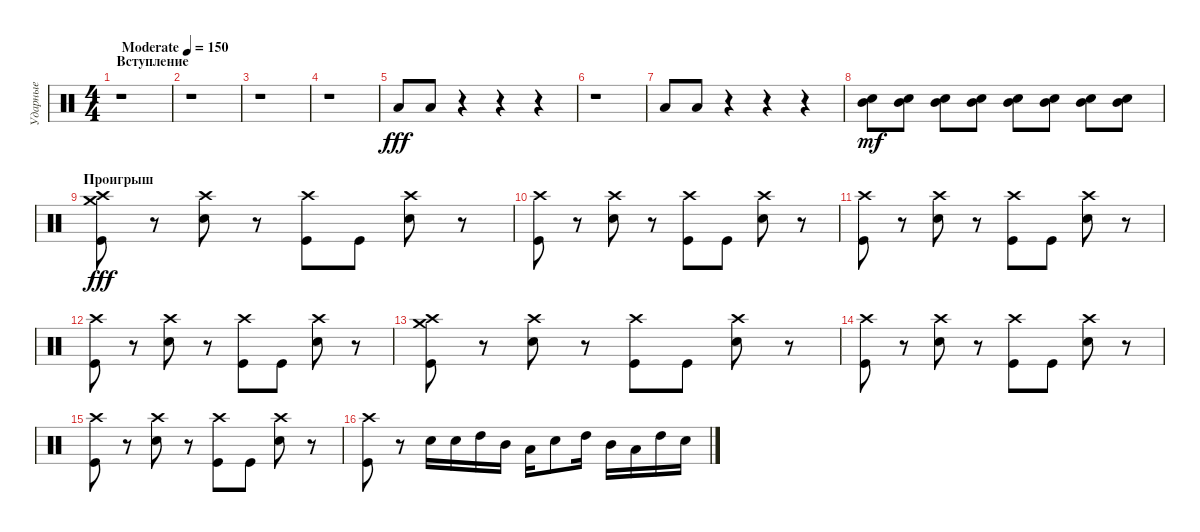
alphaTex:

\track ("Ударные" "Ударные") {instrument percussion}
\staff {score}
\articulation defaults
\ts (4 4)
\section ("" "Вступление")
\tempo (150 "Moderate")
\clef neutral
\ks c
r.1{dy fff} |
r.1 |
r.1 |
r.1 |
"Low Tom (hit)".8 "Low Tom (hit)".8 r.4 r.4 r.4 |
r.1 |
"Low Tom (hit)".8 "Low Tom (hit)".8 r.4 r.4 r.4 |
("Electric Snare (hit)" "Mid Tom (hit)").8{dy mf} ("Electric Snare (hit)" "Mid Tom (hit)").8 ("Electric Snare (hit)" "Mid Tom (hit)").8 ("Electric Snare (hit)" "Mid Tom (hit)").8 ("Electric Snare (hit)" "Mid Tom (hit)").8 ("Electric Snare (hit)" "Mid Tom (hit)").8 ("Electric Snare (hit)" "Mid Tom (hit)").8 ("Electric Snare (hit)" "Mid Tom (hit)").8 |
\section ("" "Проигрыш")
("Crash medium (hit)" "Crash high (hit)" "Kick (hit)").8{dy fff} r.8 ("Crash high (hit)" "Electric Snare (hit)").8 r.8 ("Crash high (hit)" "Kick (hit)").8 "Kick (hit)".8 ("Crash high (hit)" "Electric Snare (hit)").8 r.8 |
("Crash high (hit)" "Kick (hit)").8 r.8 ("Crash high (hit)" "Electric Snare (hit)").8 r.8 ("Crash high (hit)" "Kick (hit)").8 "Kick (hit)".8 ("Crash high (hit)" "Electric Snare (hit)").8 r.8 |
("Crash high (hit)" "Kick (hit)").8 r.8 ("Crash high (hit)" "Electric Snare (hit)").8 r.8 ("Crash high (hit)" "Kick (hit)").8 "Kick (hit)".8 ("Crash high (hit)" "Electric Snare (hit)").8 r.8 |
("Crash high (hit)" "Kick (hit)").8 r.8 ("Crash high (hit)" "Electric Snare (hit)").8 r.8 ("Crash high (hit)" "Kick (hit)").8 "Kick (hit)".8 ("Crash high (hit)" "Electric Snare (hit)").8 r.8 |
("Crash medium (hit)" "Crash high (hit)" "Kick (hit)").8 r.8 ("Crash high (hit)" "Electric Snare (hit)").8 r.8 ("Crash high (hit)" "Kick (hit)").8 "Kick (hit)".8 ("Crash high (hit)" "Electric Snare (hit)").8 r.8 |
("Crash high (hit)" "Kick (hit)").8 r.8 ("Crash high (hit)" "Electric Snare (hit)").8 r.8 ("Crash high (hit)" "Kick (hit)").8 "Kick (hit)".8 ("Crash high (hit)" "Electric Snare (hit)").8 r.8 |
("Crash high (hit)" "Kick (hit)").8 r.8 ("Crash high (hit)" "Electric Snare (hit)").8 r.8 ("Crash high (hit)" "Kick (hit)").8 "Kick (hit)".8 ("Crash high (hit)" "Electric Snare (hit)").8 r.8 |
("Crash high (hit)" "Kick (hit)").8 r.8 "Electric Snare (hit)".16 "Electric Snare (hit)".16 "High Tom (hit)".16 "Mid Tom (hit)".16 "Low Tom (hit)".16 "Electric Snare (hit)".8 "High Tom (hit)".16 "Mid Tom (hit)".16 "Low Tom (hit)".16 "High Tom (hit)".16 "Electric Snare (hit)".16
